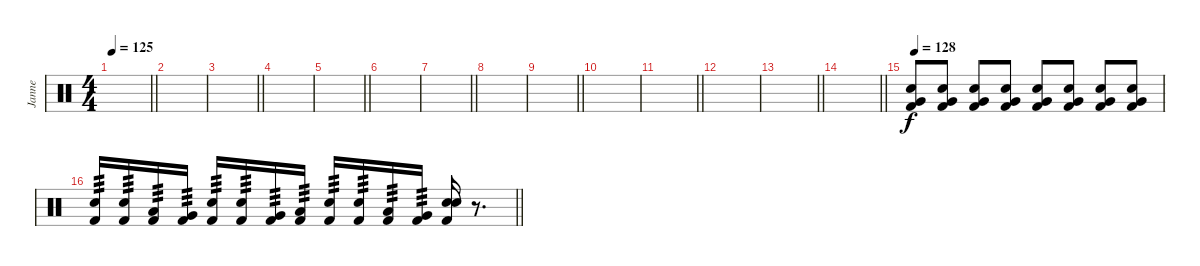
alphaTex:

\track ("Janne" "Janne") {instrument percussion}
\staff {score}
\articulation defaults
\ts (4 4)
\tempo 125
\clef neutral
\barLineRight lightlight
\ks c
|
|
\barLineRight lightlight
|
\section ("" "")
|
\barLineRight lightlight
|
|
\barLineRight lightlight
|
\section ("" "")
|
\barLineRight lightlight
|
|
\barLineRight lightlight
|
\section ("" "")
|
\barLineRight lightlight
|
\barLineRight lightlight
|
\section ("" "")
\tempo 128
("Kick (hit) 2" "Snare (hit) 2" "Very Low Tom (hit)").8 ("Kick (hit) 2" "Snare (hit) 2" "Very Low Tom (hit)").8 ("Kick (hit) 2" "Snare (hit) 2" "Very Low Tom (hit)").8 ("Kick (hit) 2" "Snare (hit) 2" "Very Low Tom (hit)").8 ("Kick (hit) 2" "Snare (hit) 2" "Very Low Tom (hit)").8 ("Kick (hit) 2" "Snare (hit) 2" "Very Low Tom (hit)").8 ("Kick (hit) 2" "Snare (hit) 2" "Very Low Tom (hit)").8 ("Kick (hit) 2" "Snare (hit) 2" "Very Low Tom (hit)").8 |
\barLineRight lightlight
("Kick (hit) 2" "Snare (hit) 2").16{tp 3} ("Kick (hit) 2" "Snare (hit) 2").16{tp 3} ("Kick (hit) 2" "Low Tom (hit)").16{tp 3} ("Kick (hit) 2" "Very Low Tom (hit)").16{tp 3} ("Kick (hit) 2" "Snare (hit) 2").16{tp 3} ("Kick (hit) 2" "Snare (hit) 2").16{tp 3} ("Kick (hit) 2" "Very Low Tom (hit)").16{tp 3} ("Kick (hit) 2" "Low Floor Tom (hit)").16{tp 3} ("Kick (hit) 2" "Snare (hit) 2").16{tp 3} ("Kick (hit) 2" "Snare (hit) 2").16{tp 3} ("Kick (hit) 2" "Low Tom (hit)").16{tp 3} ("Kick (hit) 2" "Very Low Tom (hit)").16{tp 3} ("Kick (hit) 2" "Snare (hit) 2" "Electric Snare (hit)").16 r.8{d}
